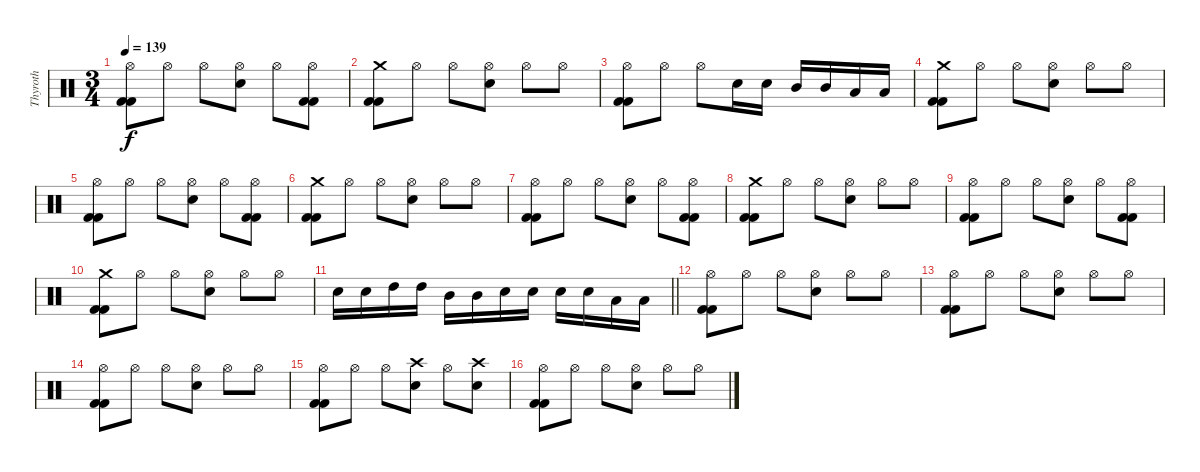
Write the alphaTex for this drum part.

\track ("Thyroth" "Thyroth") {instrument percussion}
\staff {score}
\articulation defaults
\ts (3 4)
\tempo 139
\clef neutral
\ks c
("Kick (hit) 2" "Kick (hit) 2" "Hi-Hat (open)").8{dy f} "Hi-Hat (open)".8 "Hi-Hat (open)".8 ("Snare (hit) 2" "Hi-Hat (open)").8 "Hi-Hat (open)".8 ("Kick (hit) 2" "Kick (hit) 2" "Hi-Hat (open)").8 |
("Kick (hit) 2" "Kick (hit) 2" "Crash medium (hit)").8 "Hi-Hat (open)".8 "Hi-Hat (open)".8 ("Snare (hit) 2" "Hi-Hat (open)").8 "Hi-Hat (open)".8 "Hi-Hat (open)".8 |
("Kick (hit) 2" "Kick (hit) 2" "Hi-Hat (open)").8 "Hi-Hat (open)".8 "Hi-Hat (open)".8 "Snare (hit) 2".16 "Snare (hit) 2".16 "Mid Tom (hit)".16 "Mid Tom (hit)".16 "Low Tom (hit)".16 "Low Tom (hit)".16 |
("Kick (hit) 2" "Kick (hit) 2" "Crash medium (hit)").8 "Hi-Hat (open)".8 "Hi-Hat (open)".8 ("Snare (hit) 2" "Hi-Hat (open)").8 "Hi-Hat (open)".8 "Hi-Hat (open)".8 |
("Kick (hit) 2" "Kick (hit) 2" "Hi-Hat (open)").8 "Hi-Hat (open)".8 "Hi-Hat (open)".8 ("Snare (hit) 2" "Hi-Hat (open)").8 "Hi-Hat (open)".8 ("Kick (hit) 2" "Kick (hit) 2" "Hi-Hat (open)").8 |
("Kick (hit) 2" "Kick (hit) 2" "Crash medium (hit)").8 "Hi-Hat (open)".8 "Hi-Hat (open)".8 ("Snare (hit) 2" "Hi-Hat (open)").8 "Hi-Hat (open)".8 "Hi-Hat (open)".8 |
("Kick (hit) 2" "Kick (hit) 2" "Hi-Hat (open)").8 "Hi-Hat (open)".8 "Hi-Hat (open)".8 ("Snare (hit) 2" "Hi-Hat (open)").8 "Hi-Hat (open)".8 ("Kick (hit) 2" "Kick (hit) 2" "Hi-Hat (open)").8 |
("Kick (hit) 2" "Kick (hit) 2" "Crash medium (hit)").8 "Hi-Hat (open)".8 "Hi-Hat (open)".8 ("Snare (hit) 2" "Hi-Hat (open)").8 "Hi-Hat (open)".8 "Hi-Hat (open)".8 |
("Kick (hit) 2" "Kick (hit) 2" "Hi-Hat (open)").8 "Hi-Hat (open)".8 "Hi-Hat (open)".8 ("Snare (hit) 2" "Hi-Hat (open)").8 "Hi-Hat (open)".8 ("Kick (hit) 2" "Kick (hit) 2" "Hi-Hat (open)").8 |
("Kick (hit) 2" "Kick (hit) 2" "Crash medium (hit)").8 "Hi-Hat (open)".8 "Hi-Hat (open)".8 ("Snare (hit) 2" "Hi-Hat (open)").8 "Hi-Hat (open)".8 "Hi-Hat (open)".8 |
\barLineRight lightlight "Snare (hit) 2".16 "Snare (hit) 2".16 "High Tom (hit)".16 "High Tom (hit)".16 "Mid Tom (hit)".16 "Mid Tom (hit)".16 "Snare (hit) 2".16 "Snare (hit) 2".16 "Snare (hit) 2".16 "Snare (hit) 2".16 "Low Tom (hit)".16 "Low Tom (hit)".16
|
("Kick (hit) 2" "Kick (hit) 2" "Hi-Hat (open)").8 "Hi-Hat (open)".8 "Hi-Hat (open)".8 ("Snare (hit) 2" "Hi-Hat (open)").8 "Hi-Hat (open)".8 "Hi-Hat (open)".8 |
("Kick (hit) 2" "Kick (hit) 2" "Hi-Hat (open)").8 "Hi-Hat (open)".8 "Hi-Hat (open)".8 ("Snare (hit) 2" "Hi-Hat (open)").8 "Hi-Hat (open)".8 "Hi-Hat (open)".8 |
("Kick (hit) 2" "Kick (hit) 2" "Hi-Hat (open)").8 "Hi-Hat (open)".8 "Hi-Hat (open)".8 ("Snare (hit) 2" "Hi-Hat (open)").8 "Hi-Hat (open)".8 "Hi-Hat (open)".8 |
("Kick (hit) 2" "Kick (hit) 2" "Hi-Hat (open)").8 "Hi-Hat (open)".8 "Hi-Hat (open)".8 ("Snare (hit) 2" "Crash high (hit)").8 "Hi-Hat (open)".8 ("Snare (hit) 2" "Crash high (hit)").8 |
("Kick (hit) 2" "Kick (hit) 2" "Hi-Hat (open)").8 "Hi-Hat (open)".8 "Hi-Hat (open)".8 ("Snare (hit) 2" "Hi-Hat (open)").8 "Hi-Hat (open)".8 "Hi-Hat (open)".8
